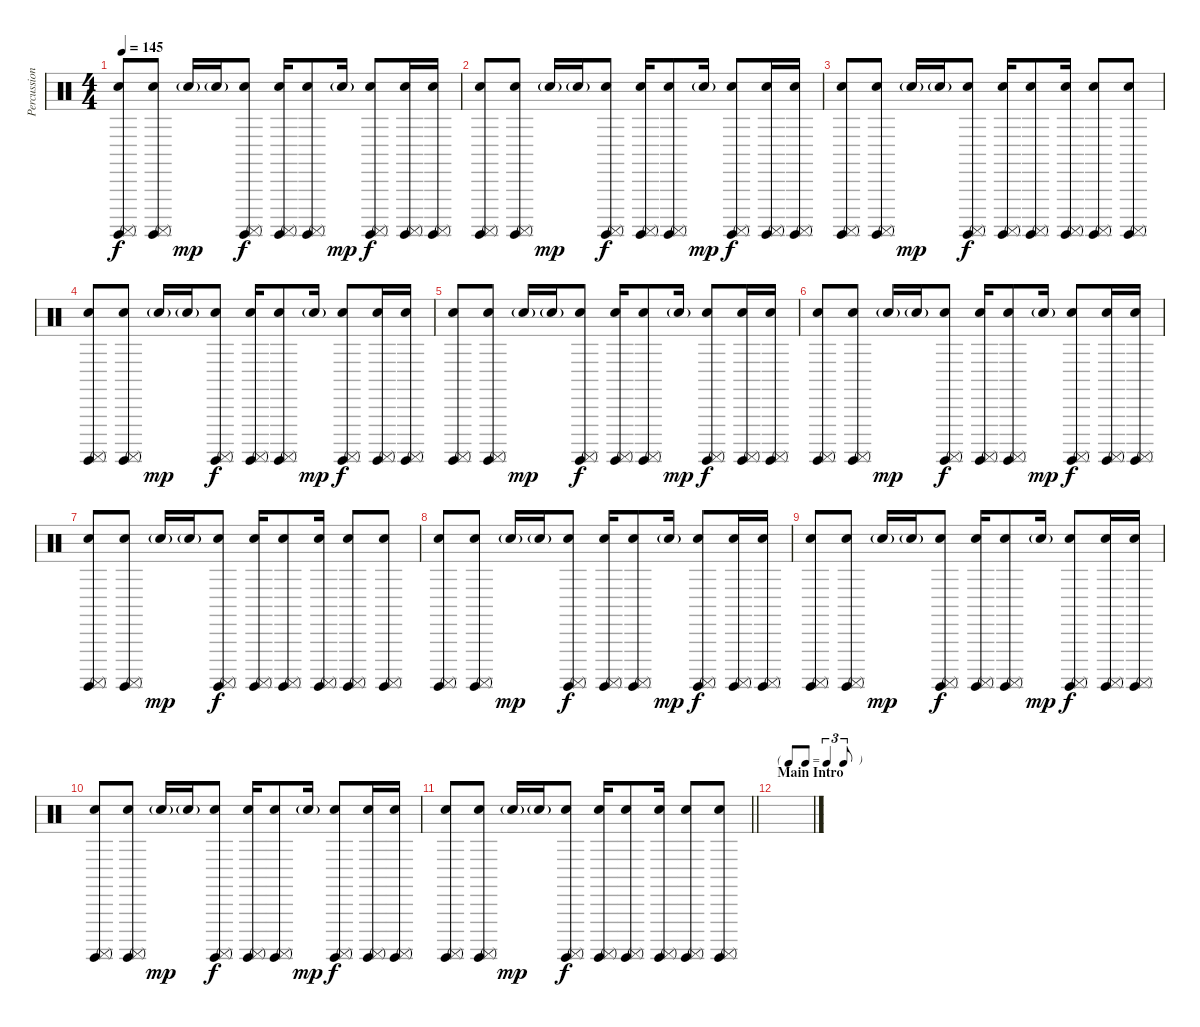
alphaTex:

\track ("Percussion" "Percussion") {instrument percussion}
\staff {score}
\articulation defaults
\ts (4 4)
\tempo 145
\clef neutral
\ks c
("Snare (hit) 2" "Surdo (hit)" "Surdo (mute)").8{dy f} ("Snare (hit) 2" "Surdo (hit)" "Surdo (mute)").8 "Snare (hit) 2"{g}.16{dy mp} "Snare (hit) 2"{g}.16 ("Snare (hit) 2" "Surdo (hit)" "Surdo (mute)").8{dy f} ("Snare (hit) 2" "Surdo (hit)" "Surdo (mute)").16 ("Snare (hit) 2" "Surdo (hit)" "Surdo (mute)").8 "Snare (hit) 2"{g}.16{dy mp} ("Snare (hit) 2" "Surdo (hit)" "Surdo (mute)").8{dy f} ("Snare (hit) 2" "Surdo (hit)" "Surdo (mute)").16 ("Snare (hit) 2" "Surdo (hit)" "Surdo (mute)").16 |
("Snare (hit) 2" "Surdo (hit)" "Surdo (mute)").8 ("Snare (hit) 2" "Surdo (hit)" "Surdo (mute)").8 "Snare (hit) 2"{g}.16{dy mp} "Snare (hit) 2"{g}.16 ("Snare (hit) 2" "Surdo (hit)" "Surdo (mute)").8{dy f} ("Snare (hit) 2" "Surdo (hit)" "Surdo (mute)").16 ("Snare (hit) 2" "Surdo (hit)" "Surdo (mute)").8 "Snare (hit) 2"{g}.16{dy mp} ("Snare (hit) 2" "Surdo (hit)" "Surdo (mute)").8{dy f} ("Snare (hit) 2" "Surdo (hit)" "Surdo (mute)").16 ("Snare (hit) 2" "Surdo (hit)" "Surdo (mute)").16 |
("Snare (hit) 2" "Surdo (hit)" "Surdo (mute)").8 ("Snare (hit) 2" "Surdo (hit)" "Surdo (mute)").8 "Snare (hit) 2"{g}.16{dy mp} "Snare (hit) 2"{g}.16 ("Snare (hit) 2" "Surdo (hit)" "Surdo (mute)").8{dy f} ("Snare (hit) 2" "Surdo (hit)" "Surdo (mute)").16 ("Snare (hit) 2" "Surdo (hit)" "Surdo (mute)").8 ("Snare (hit) 2" "Surdo (hit)" "Surdo (mute)").16 ("Snare (hit) 2" "Surdo (hit)" "Surdo (mute)").8 ("Snare (hit) 2" "Surdo (hit)" "Surdo (mute)").8 |
("Snare (hit) 2" "Surdo (hit)" "Surdo (mute)").8 ("Snare (hit) 2" "Surdo (hit)" "Surdo (mute)").8 "Snare (hit) 2"{g}.16{dy mp} "Snare (hit) 2"{g}.16 ("Snare (hit) 2" "Surdo (hit)" "Surdo (mute)").8{dy f} ("Snare (hit) 2" "Surdo (hit)" "Surdo (mute)").16 ("Snare (hit) 2" "Surdo (hit)" "Surdo (mute)").8 "Snare (hit) 2"{g}.16{dy mp} ("Snare (hit) 2" "Surdo (hit)" "Surdo (mute)").8{dy f} ("Snare (hit) 2" "Surdo (hit)" "Surdo (mute)").16 ("Snare (hit) 2" "Surdo (hit)" "Surdo (mute)").16 |
("Snare (hit) 2" "Surdo (hit)" "Surdo (mute)").8 ("Snare (hit) 2" "Surdo (hit)" "Surdo (mute)").8 "Snare (hit) 2"{g}.16{dy mp} "Snare (hit) 2"{g}.16 ("Snare (hit) 2" "Surdo (hit)" "Surdo (mute)").8{dy f} ("Snare (hit) 2" "Surdo (hit)" "Surdo (mute)").16 ("Snare (hit) 2" "Surdo (hit)" "Surdo (mute)").8 "Snare (hit) 2"{g}.16{dy mp} ("Snare (hit) 2" "Surdo (hit)" "Surdo (mute)").8{dy f} ("Snare (hit) 2" "Surdo (hit)" "Surdo (mute)").16 ("Snare (hit) 2" "Surdo (hit)" "Surdo (mute)").16 |
("Snare (hit) 2" "Surdo (hit)" "Surdo (mute)").8 ("Snare (hit) 2" "Surdo (hit)" "Surdo (mute)").8 "Snare (hit) 2"{g}.16{dy mp} "Snare (hit) 2"{g}.16 ("Snare (hit) 2" "Surdo (hit)" "Surdo (mute)").8{dy f} ("Snare (hit) 2" "Surdo (hit)" "Surdo (mute)").16 ("Snare (hit) 2" "Surdo (hit)" "Surdo (mute)").8 "Snare (hit) 2"{g}.16{dy mp} ("Snare (hit) 2" "Surdo (hit)" "Surdo (mute)").8{dy f} ("Snare (hit) 2" "Surdo (hit)" "Surdo (mute)").16 ("Snare (hit) 2" "Surdo (hit)" "Surdo (mute)").16 |
("Snare (hit) 2" "Surdo (hit)" "Surdo (mute)").8 ("Snare (hit) 2" "Surdo (hit)" "Surdo (mute)").8 "Snare (hit) 2"{g}.16{dy mp} "Snare (hit) 2"{g}.16 ("Snare (hit) 2" "Surdo (hit)" "Surdo (mute)").8{dy f} ("Snare (hit) 2" "Surdo (hit)" "Surdo (mute)").16 ("Snare (hit) 2" "Surdo (hit)" "Surdo (mute)").8 ("Snare (hit) 2" "Surdo (hit)" "Surdo (mute)").16 ("Snare (hit) 2" "Surdo (hit)" "Surdo (mute)").8 ("Snare (hit) 2" "Surdo (hit)" "Surdo (mute)").8 |
("Snare (hit) 2" "Surdo (hit)" "Surdo (mute)").8 ("Snare (hit) 2" "Surdo (hit)" "Surdo (mute)").8 "Snare (hit) 2"{g}.16{dy mp} "Snare (hit) 2"{g}.16 ("Snare (hit) 2" "Surdo (hit)" "Surdo (mute)").8{dy f} ("Snare (hit) 2" "Surdo (hit)" "Surdo (mute)").16 ("Snare (hit) 2" "Surdo (hit)" "Surdo (mute)").8 "Snare (hit) 2"{g}.16{dy mp} ("Snare (hit) 2" "Surdo (hit)" "Surdo (mute)").8{dy f} ("Snare (hit) 2" "Surdo (hit)" "Surdo (mute)").16 ("Snare (hit) 2" "Surdo (hit)" "Surdo (mute)").16 |
("Snare (hit) 2" "Surdo (hit)" "Surdo (mute)").8 ("Snare (hit) 2" "Surdo (hit)" "Surdo (mute)").8 "Snare (hit) 2"{g}.16{dy mp} "Snare (hit) 2"{g}.16 ("Snare (hit) 2" "Surdo (hit)" "Surdo (mute)").8{dy f} ("Snare (hit) 2" "Surdo (hit)" "Surdo (mute)").16 ("Snare (hit) 2" "Surdo (hit)" "Surdo (mute)").8 "Snare (hit) 2"{g}.16{dy mp} ("Snare (hit) 2" "Surdo (hit)" "Surdo (mute)").8{dy f} ("Snare (hit) 2" "Surdo (hit)" "Surdo (mute)").16 ("Snare (hit) 2" "Surdo (hit)" "Surdo (mute)").16 |
("Snare (hit) 2" "Surdo (hit)" "Surdo (mute)").8 ("Snare (hit) 2" "Surdo (hit)" "Surdo (mute)").8 "Snare (hit) 2"{g}.16{dy mp} "Snare (hit) 2"{g}.16 ("Snare (hit) 2" "Surdo (hit)" "Surdo (mute)").8{dy f} ("Snare (hit) 2" "Surdo (hit)" "Surdo (mute)").16 ("Snare (hit) 2" "Surdo (hit)" "Surdo (mute)").8 "Snare (hit) 2"{g}.16{dy mp} ("Snare (hit) 2" "Surdo (hit)" "Surdo (mute)").8{dy f} ("Snare (hit) 2" "Surdo (hit)" "Surdo (mute)").16 ("Snare (hit) 2" "Surdo (hit)" "Surdo (mute)").16 |
\barLineRight lightlight
("Snare (hit) 2" "Surdo (hit)" "Surdo (mute)").8 ("Snare (hit) 2" "Surdo (hit)" "Surdo (mute)").8 "Snare (hit) 2"{g}.16{dy mp} "Snare (hit) 2"{g}.16 ("Snare (hit) 2" "Surdo (hit)" "Surdo (mute)").8{dy f} ("Snare (hit) 2" "Surdo (hit)" "Surdo (mute)").16 ("Snare (hit) 2" "Surdo (hit)" "Surdo (mute)").8 ("Snare (hit) 2" "Surdo (hit)" "Surdo (mute)").16 ("Snare (hit) 2" "Surdo (hit)" "Surdo (mute)").8 ("Snare (hit) 2" "Surdo (hit)" "Surdo (mute)").8 |
\tf triplet8th
\section ("" "Main Intro")
